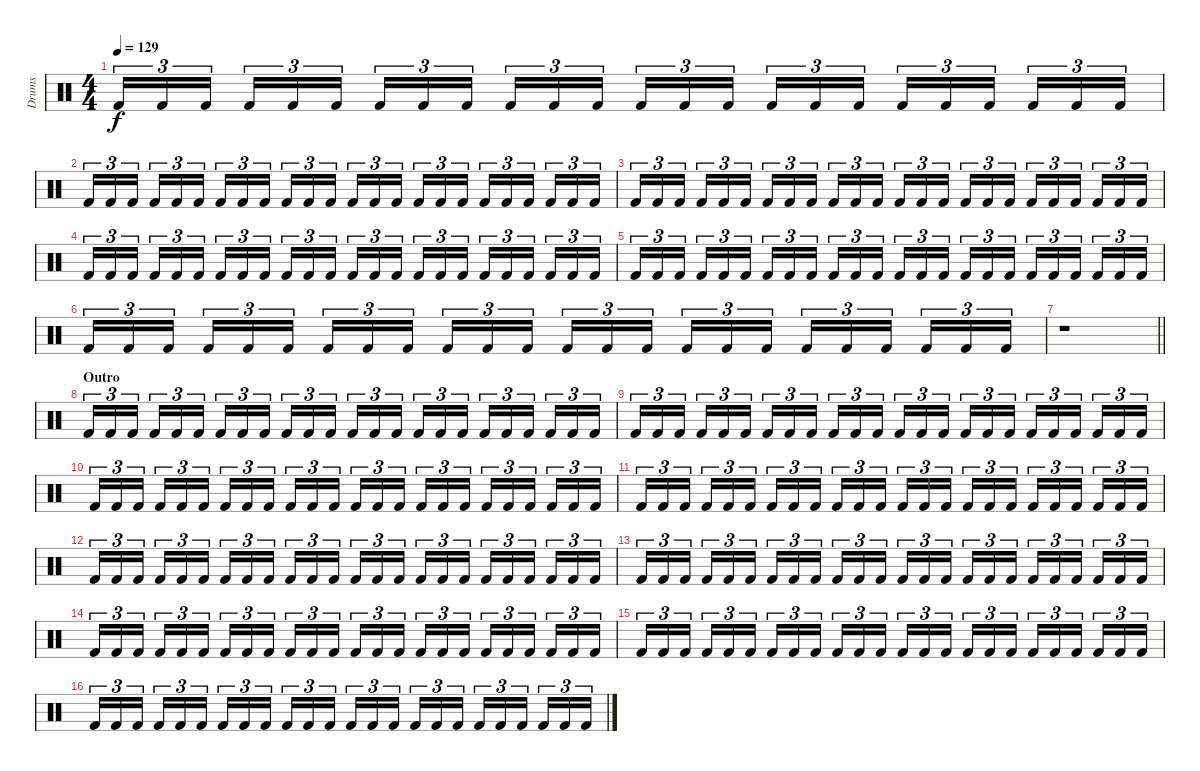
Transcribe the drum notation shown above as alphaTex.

\track ("Drums" "Drums") {instrument percussion}
\staff {score}
\articulation defaults
\ts (4 4)
\tempo 129
\clef neutral
\ks c "Kick (hit) 2".16{tu (3 2) dy f} "Kick (hit) 2".16{tu (3 2)} "Kick (hit) 2".16{tu (3 2) beam splitsecondary} "Kick (hit) 2".16{tu (3 2)} "Kick (hit) 2".16{tu (3 2)} "Kick (hit) 2".16{tu (3 2)} "Kick (hit) 2".16{tu (3 2)} "Kick (hit) 2".16{tu (3 2)} "Kick (hit) 2".16{tu (3 2) beam splitsecondary} "Kick (hit) 2".16{tu (3 2)} "Kick (hit) 2".16{tu (3 2)} "Kick (hit) 2".16{tu (3 2)} "Kick (hit) 2".16{tu (3 2)} "Kick (hit) 2".16{tu (3 2)} "Kick (hit) 2".16{tu (3 2) beam splitsecondary} "Kick (hit) 2".16{tu (3 2)} "Kick (hit) 2".16{tu (3 2)} "Kick (hit) 2".16{tu (3 2)} "Kick (hit) 2".16{tu (3 2)} "Kick (hit) 2".16{tu (3 2)} "Kick (hit) 2".16{tu (3 2) beam splitsecondary} "Kick (hit) 2".16{tu (3 2)} "Kick (hit) 2".16{tu (3 2)} "Kick (hit) 2".16{tu (3 2)}
|
"Kick (hit) 2".16{tu (3 2)} "Kick (hit) 2".16{tu (3 2)} "Kick (hit) 2".16{tu (3 2) beam splitsecondary} "Kick (hit) 2".16{tu (3 2)} "Kick (hit) 2".16{tu (3 2)} "Kick (hit) 2".16{tu (3 2)} "Kick (hit) 2".16{tu (3 2)} "Kick (hit) 2".16{tu (3 2)} "Kick (hit) 2".16{tu (3 2) beam splitsecondary} "Kick (hit) 2".16{tu (3 2)} "Kick (hit) 2".16{tu (3 2)} "Kick (hit) 2".16{tu (3 2)} "Kick (hit) 2".16{tu (3 2)} "Kick (hit) 2".16{tu (3 2)} "Kick (hit) 2".16{tu (3 2) beam splitsecondary} "Kick (hit) 2".16{tu (3 2)} "Kick (hit) 2".16{tu (3 2)} "Kick (hit) 2".16{tu (3 2)} "Kick (hit) 2".16{tu (3 2)} "Kick (hit) 2".16{tu (3 2)} "Kick (hit) 2".16{tu (3 2) beam splitsecondary} "Kick (hit) 2".16{tu (3 2)} "Kick (hit) 2".16{tu (3 2)} "Kick (hit) 2".16{tu (3 2)} |
"Kick (hit) 2".16{tu (3 2)} "Kick (hit) 2".16{tu (3 2)} "Kick (hit) 2".16{tu (3 2) beam splitsecondary} "Kick (hit) 2".16{tu (3 2)} "Kick (hit) 2".16{tu (3 2)} "Kick (hit) 2".16{tu (3 2)} "Kick (hit) 2".16{tu (3 2)} "Kick (hit) 2".16{tu (3 2)} "Kick (hit) 2".16{tu (3 2) beam splitsecondary} "Kick (hit) 2".16{tu (3 2)} "Kick (hit) 2".16{tu (3 2)} "Kick (hit) 2".16{tu (3 2)} "Kick (hit) 2".16{tu (3 2)} "Kick (hit) 2".16{tu (3 2)} "Kick (hit) 2".16{tu (3 2) beam splitsecondary} "Kick (hit) 2".16{tu (3 2)} "Kick (hit) 2".16{tu (3 2)} "Kick (hit) 2".16{tu (3 2)} "Kick (hit) 2".16{tu (3 2)} "Kick (hit) 2".16{tu (3 2)} "Kick (hit) 2".16{tu (3 2) beam splitsecondary} "Kick (hit) 2".16{tu (3 2)} "Kick (hit) 2".16{tu (3 2)} "Kick (hit) 2".16{tu (3 2)} |
"Kick (hit) 2".16{tu (3 2)} "Kick (hit) 2".16{tu (3 2)} "Kick (hit) 2".16{tu (3 2) beam splitsecondary} "Kick (hit) 2".16{tu (3 2)} "Kick (hit) 2".16{tu (3 2)} "Kick (hit) 2".16{tu (3 2)} "Kick (hit) 2".16{tu (3 2)} "Kick (hit) 2".16{tu (3 2)} "Kick (hit) 2".16{tu (3 2) beam splitsecondary} "Kick (hit) 2".16{tu (3 2)} "Kick (hit) 2".16{tu (3 2)} "Kick (hit) 2".16{tu (3 2)} "Kick (hit) 2".16{tu (3 2)} "Kick (hit) 2".16{tu (3 2)} "Kick (hit) 2".16{tu (3 2) beam splitsecondary} "Kick (hit) 2".16{tu (3 2)} "Kick (hit) 2".16{tu (3 2)} "Kick (hit) 2".16{tu (3 2)} "Kick (hit) 2".16{tu (3 2)} "Kick (hit) 2".16{tu (3 2)} "Kick (hit) 2".16{tu (3 2) beam splitsecondary} "Kick (hit) 2".16{tu (3 2)} "Kick (hit) 2".16{tu (3 2)} "Kick (hit) 2".16{tu (3 2)} |
"Kick (hit) 2".16{tu (3 2)} "Kick (hit) 2".16{tu (3 2)} "Kick (hit) 2".16{tu (3 2) beam splitsecondary} "Kick (hit) 2".16{tu (3 2)} "Kick (hit) 2".16{tu (3 2)} "Kick (hit) 2".16{tu (3 2)} "Kick (hit) 2".16{tu (3 2)} "Kick (hit) 2".16{tu (3 2)} "Kick (hit) 2".16{tu (3 2) beam splitsecondary} "Kick (hit) 2".16{tu (3 2)} "Kick (hit) 2".16{tu (3 2)} "Kick (hit) 2".16{tu (3 2)} "Kick (hit) 2".16{tu (3 2)} "Kick (hit) 2".16{tu (3 2)} "Kick (hit) 2".16{tu (3 2) beam splitsecondary} "Kick (hit) 2".16{tu (3 2)} "Kick (hit) 2".16{tu (3 2)} "Kick (hit) 2".16{tu (3 2)} "Kick (hit) 2".16{tu (3 2)} "Kick (hit) 2".16{tu (3 2)} "Kick (hit) 2".16{tu (3 2) beam splitsecondary} "Kick (hit) 2".16{tu (3 2)} "Kick (hit) 2".16{tu (3 2)} "Kick (hit) 2".16{tu (3 2)} |
"Kick (hit) 2".16{tu (3 2)} "Kick (hit) 2".16{tu (3 2)} "Kick (hit) 2".16{tu (3 2) beam splitsecondary} "Kick (hit) 2".16{tu (3 2)} "Kick (hit) 2".16{tu (3 2)} "Kick (hit) 2".16{tu (3 2)} "Kick (hit) 2".16{tu (3 2)} "Kick (hit) 2".16{tu (3 2)} "Kick (hit) 2".16{tu (3 2) beam splitsecondary} "Kick (hit) 2".16{tu (3 2)} "Kick (hit) 2".16{tu (3 2)} "Kick (hit) 2".16{tu (3 2)} "Kick (hit) 2".16{tu (3 2)} "Kick (hit) 2".16{tu (3 2)} "Kick (hit) 2".16{tu (3 2) beam splitsecondary} "Kick (hit) 2".16{tu (3 2)} "Kick (hit) 2".16{tu (3 2)} "Kick (hit) 2".16{tu (3 2)} "Kick (hit) 2".16{tu (3 2)} "Kick (hit) 2".16{tu (3 2)} "Kick (hit) 2".16{tu (3 2) beam splitsecondary} "Kick (hit) 2".16{tu (3 2)} "Kick (hit) 2".16{tu (3 2)} "Kick (hit) 2".16{tu (3 2)} |
\barLineRight lightlight
r.1 |
\section ("" "Outro")
"Kick (hit) 2".16{tu (3 2)} "Kick (hit) 2".16{tu (3 2)} "Kick (hit) 2".16{tu (3 2) beam splitsecondary} "Kick (hit) 2".16{tu (3 2)} "Kick (hit) 2".16{tu (3 2)} "Kick (hit) 2".16{tu (3 2)} "Kick (hit) 2".16{tu (3 2)} "Kick (hit) 2".16{tu (3 2)} "Kick (hit) 2".16{tu (3 2) beam splitsecondary} "Kick (hit) 2".16{tu (3 2)} "Kick (hit) 2".16{tu (3 2)} "Kick (hit) 2".16{tu (3 2)} "Kick (hit) 2".16{tu (3 2)} "Kick (hit) 2".16{tu (3 2)} "Kick (hit) 2".16{tu (3 2) beam splitsecondary} "Kick (hit) 2".16{tu (3 2)} "Kick (hit) 2".16{tu (3 2)} "Kick (hit) 2".16{tu (3 2)} "Kick (hit) 2".16{tu (3 2)} "Kick (hit) 2".16{tu (3 2)} "Kick (hit) 2".16{tu (3 2) beam splitsecondary} "Kick (hit) 2".16{tu (3 2)} "Kick (hit) 2".16{tu (3 2)} "Kick (hit) 2".16{tu (3 2)} |
"Kick (hit) 2".16{tu (3 2)} "Kick (hit) 2".16{tu (3 2)} "Kick (hit) 2".16{tu (3 2) beam splitsecondary} "Kick (hit) 2".16{tu (3 2)} "Kick (hit) 2".16{tu (3 2)} "Kick (hit) 2".16{tu (3 2)} "Kick (hit) 2".16{tu (3 2)} "Kick (hit) 2".16{tu (3 2)} "Kick (hit) 2".16{tu (3 2) beam splitsecondary} "Kick (hit) 2".16{tu (3 2)} "Kick (hit) 2".16{tu (3 2)} "Kick (hit) 2".16{tu (3 2)} "Kick (hit) 2".16{tu (3 2)} "Kick (hit) 2".16{tu (3 2)} "Kick (hit) 2".16{tu (3 2) beam splitsecondary} "Kick (hit) 2".16{tu (3 2)} "Kick (hit) 2".16{tu (3 2)} "Kick (hit) 2".16{tu (3 2)} "Kick (hit) 2".16{tu (3 2)} "Kick (hit) 2".16{tu (3 2)} "Kick (hit) 2".16{tu (3 2) beam splitsecondary} "Kick (hit) 2".16{tu (3 2)} "Kick (hit) 2".16{tu (3 2)} "Kick (hit) 2".16{tu (3 2)} |
"Kick (hit) 2".16{tu (3 2)} "Kick (hit) 2".16{tu (3 2)} "Kick (hit) 2".16{tu (3 2) beam splitsecondary} "Kick (hit) 2".16{tu (3 2)} "Kick (hit) 2".16{tu (3 2)} "Kick (hit) 2".16{tu (3 2)} "Kick (hit) 2".16{tu (3 2)} "Kick (hit) 2".16{tu (3 2)} "Kick (hit) 2".16{tu (3 2) beam splitsecondary} "Kick (hit) 2".16{tu (3 2)} "Kick (hit) 2".16{tu (3 2)} "Kick (hit) 2".16{tu (3 2)} "Kick (hit) 2".16{tu (3 2)} "Kick (hit) 2".16{tu (3 2)} "Kick (hit) 2".16{tu (3 2) beam splitsecondary} "Kick (hit) 2".16{tu (3 2)} "Kick (hit) 2".16{tu (3 2)} "Kick (hit) 2".16{tu (3 2)} "Kick (hit) 2".16{tu (3 2)} "Kick (hit) 2".16{tu (3 2)} "Kick (hit) 2".16{tu (3 2) beam splitsecondary} "Kick (hit) 2".16{tu (3 2)} "Kick (hit) 2".16{tu (3 2)} "Kick (hit) 2".16{tu (3 2)} |
"Kick (hit) 2".16{tu (3 2)} "Kick (hit) 2".16{tu (3 2)} "Kick (hit) 2".16{tu (3 2) beam splitsecondary} "Kick (hit) 2".16{tu (3 2)} "Kick (hit) 2".16{tu (3 2)} "Kick (hit) 2".16{tu (3 2)} "Kick (hit) 2".16{tu (3 2)} "Kick (hit) 2".16{tu (3 2)} "Kick (hit) 2".16{tu (3 2) beam splitsecondary} "Kick (hit) 2".16{tu (3 2)} "Kick (hit) 2".16{tu (3 2)} "Kick (hit) 2".16{tu (3 2)} "Kick (hit) 2".16{tu (3 2)} "Kick (hit) 2".16{tu (3 2)} "Kick (hit) 2".16{tu (3 2) beam splitsecondary} "Kick (hit) 2".16{tu (3 2)} "Kick (hit) 2".16{tu (3 2)} "Kick (hit) 2".16{tu (3 2)} "Kick (hit) 2".16{tu (3 2)} "Kick (hit) 2".16{tu (3 2)} "Kick (hit) 2".16{tu (3 2) beam splitsecondary} "Kick (hit) 2".16{tu (3 2)} "Kick (hit) 2".16{tu (3 2)} "Kick (hit) 2".16{tu (3 2)} |
"Kick (hit) 2".16{tu (3 2)} "Kick (hit) 2".16{tu (3 2)} "Kick (hit) 2".16{tu (3 2) beam splitsecondary} "Kick (hit) 2".16{tu (3 2)} "Kick (hit) 2".16{tu (3 2)} "Kick (hit) 2".16{tu (3 2)} "Kick (hit) 2".16{tu (3 2)} "Kick (hit) 2".16{tu (3 2)} "Kick (hit) 2".16{tu (3 2) beam splitsecondary} "Kick (hit) 2".16{tu (3 2)} "Kick (hit) 2".16{tu (3 2)} "Kick (hit) 2".16{tu (3 2)} "Kick (hit) 2".16{tu (3 2)} "Kick (hit) 2".16{tu (3 2)} "Kick (hit) 2".16{tu (3 2) beam splitsecondary} "Kick (hit) 2".16{tu (3 2)} "Kick (hit) 2".16{tu (3 2)} "Kick (hit) 2".16{tu (3 2)} "Kick (hit) 2".16{tu (3 2)} "Kick (hit) 2".16{tu (3 2)} "Kick (hit) 2".16{tu (3 2) beam splitsecondary} "Kick (hit) 2".16{tu (3 2)} "Kick (hit) 2".16{tu (3 2)} "Kick (hit) 2".16{tu (3 2)} |
"Kick (hit) 2".16{tu (3 2)} "Kick (hit) 2".16{tu (3 2)} "Kick (hit) 2".16{tu (3 2) beam splitsecondary} "Kick (hit) 2".16{tu (3 2)} "Kick (hit) 2".16{tu (3 2)} "Kick (hit) 2".16{tu (3 2)} "Kick (hit) 2".16{tu (3 2)} "Kick (hit) 2".16{tu (3 2)} "Kick (hit) 2".16{tu (3 2) beam splitsecondary} "Kick (hit) 2".16{tu (3 2)} "Kick (hit) 2".16{tu (3 2)} "Kick (hit) 2".16{tu (3 2)} "Kick (hit) 2".16{tu (3 2)} "Kick (hit) 2".16{tu (3 2)} "Kick (hit) 2".16{tu (3 2) beam splitsecondary} "Kick (hit) 2".16{tu (3 2)} "Kick (hit) 2".16{tu (3 2)} "Kick (hit) 2".16{tu (3 2)} "Kick (hit) 2".16{tu (3 2)} "Kick (hit) 2".16{tu (3 2)} "Kick (hit) 2".16{tu (3 2) beam splitsecondary} "Kick (hit) 2".16{tu (3 2)} "Kick (hit) 2".16{tu (3 2)} "Kick (hit) 2".16{tu (3 2)} |
"Kick (hit) 2".16{tu (3 2)} "Kick (hit) 2".16{tu (3 2)} "Kick (hit) 2".16{tu (3 2) beam splitsecondary} "Kick (hit) 2".16{tu (3 2)} "Kick (hit) 2".16{tu (3 2)} "Kick (hit) 2".16{tu (3 2)} "Kick (hit) 2".16{tu (3 2)} "Kick (hit) 2".16{tu (3 2)} "Kick (hit) 2".16{tu (3 2) beam splitsecondary} "Kick (hit) 2".16{tu (3 2)} "Kick (hit) 2".16{tu (3 2)} "Kick (hit) 2".16{tu (3 2)} "Kick (hit) 2".16{tu (3 2)} "Kick (hit) 2".16{tu (3 2)} "Kick (hit) 2".16{tu (3 2) beam splitsecondary} "Kick (hit) 2".16{tu (3 2)} "Kick (hit) 2".16{tu (3 2)} "Kick (hit) 2".16{tu (3 2)} "Kick (hit) 2".16{tu (3 2)} "Kick (hit) 2".16{tu (3 2)} "Kick (hit) 2".16{tu (3 2) beam splitsecondary} "Kick (hit) 2".16{tu (3 2)} "Kick (hit) 2".16{tu (3 2)} "Kick (hit) 2".16{tu (3 2)} |
"Kick (hit) 2".16{tu (3 2)} "Kick (hit) 2".16{tu (3 2)} "Kick (hit) 2".16{tu (3 2) beam splitsecondary} "Kick (hit) 2".16{tu (3 2)} "Kick (hit) 2".16{tu (3 2)} "Kick (hit) 2".16{tu (3 2)} "Kick (hit) 2".16{tu (3 2)} "Kick (hit) 2".16{tu (3 2)} "Kick (hit) 2".16{tu (3 2) beam splitsecondary} "Kick (hit) 2".16{tu (3 2)} "Kick (hit) 2".16{tu (3 2)} "Kick (hit) 2".16{tu (3 2)} "Kick (hit) 2".16{tu (3 2)} "Kick (hit) 2".16{tu (3 2)} "Kick (hit) 2".16{tu (3 2) beam splitsecondary} "Kick (hit) 2".16{tu (3 2)} "Kick (hit) 2".16{tu (3 2)} "Kick (hit) 2".16{tu (3 2)} "Kick (hit) 2".16{tu (3 2)} "Kick (hit) 2".16{tu (3 2)} "Kick (hit) 2".16{tu (3 2) beam splitsecondary} "Kick (hit) 2".16{tu (3 2)} "Kick (hit) 2".16{tu (3 2)} "Kick (hit) 2".16{tu (3 2)} |
"Kick (hit) 2".16{tu (3 2)} "Kick (hit) 2".16{tu (3 2)} "Kick (hit) 2".16{tu (3 2) beam splitsecondary} "Kick (hit) 2".16{tu (3 2)} "Kick (hit) 2".16{tu (3 2)} "Kick (hit) 2".16{tu (3 2)} "Kick (hit) 2".16{tu (3 2)} "Kick (hit) 2".16{tu (3 2)} "Kick (hit) 2".16{tu (3 2) beam splitsecondary} "Kick (hit) 2".16{tu (3 2)} "Kick (hit) 2".16{tu (3 2)} "Kick (hit) 2".16{tu (3 2)} "Kick (hit) 2".16{tu (3 2)} "Kick (hit) 2".16{tu (3 2)} "Kick (hit) 2".16{tu (3 2) beam splitsecondary} "Kick (hit) 2".16{tu (3 2)} "Kick (hit) 2".16{tu (3 2)} "Kick (hit) 2".16{tu (3 2)} "Kick (hit) 2".16{tu (3 2)} "Kick (hit) 2".16{tu (3 2)} "Kick (hit) 2".16{tu (3 2) beam splitsecondary} "Kick (hit) 2".16{tu (3 2)} "Kick (hit) 2".16{tu (3 2)} "Kick (hit) 2".16{tu (3 2)}
